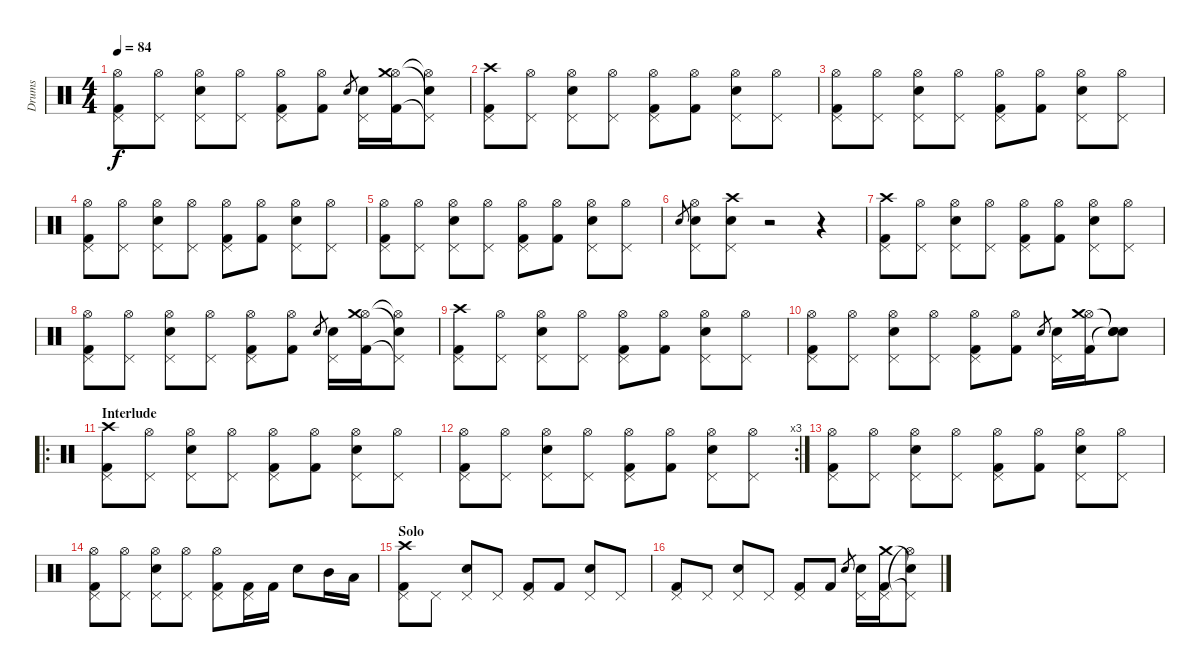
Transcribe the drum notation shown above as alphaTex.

\track ("Drums" "Drums") {instrument percussion}
\staff {score}
\articulation defaults
\ts (4 4)
\tempo 84
\clef neutral
\ks c
("Kick (hit) 2" "Pedal Hi-Hat (hit)" "Hi-Hat (open)").8{dy f} ("Pedal Hi-Hat (hit)" "Hi-Hat (open)").8 ("Snare (hit) 2" "Pedal Hi-Hat (hit)" "Hi-Hat (open)").8 ("Pedal Hi-Hat (hit)" "Hi-Hat (open)").8 ("Kick (hit) 2" "Pedal Hi-Hat (hit)" "Hi-Hat (open)").8 ("Kick (hit) 2" "Hi-Hat (open)").8 "Snare (hit) 2".8{gr} ("Snare (hit) 2" "Pedal Hi-Hat (hit)").16 ("Kick (hit) 2" "Hi-Hat (open)" "Crash medium (hit)").16 ("Pedal Hi-Hat (hit)"{t} "Hi-Hat (open)"{t} "Snare (hit)"{t}).8 |
("Kick (hit) 2" "Pedal Hi-Hat (hit)" "Crash high (hit)").8 ("Pedal Hi-Hat (hit)" "Hi-Hat (open)").8 ("Snare (hit) 2" "Pedal Hi-Hat (hit)" "Hi-Hat (open)").8 ("Pedal Hi-Hat (hit)" "Hi-Hat (open)").8 ("Kick (hit) 2" "Pedal Hi-Hat (hit)" "Hi-Hat (open)").8 ("Kick (hit) 2" "Hi-Hat (open)").8 ("Snare (hit) 2" "Pedal Hi-Hat (hit)" "Hi-Hat (open)").8 ("Pedal Hi-Hat (hit)" "Hi-Hat (open)").8 |
("Kick (hit) 2" "Pedal Hi-Hat (hit)" "Hi-Hat (open)").8 ("Pedal Hi-Hat (hit)" "Hi-Hat (open)").8 ("Snare (hit) 2" "Pedal Hi-Hat (hit)" "Hi-Hat (open)").8 ("Pedal Hi-Hat (hit)" "Hi-Hat (open)").8 ("Kick (hit) 2" "Pedal Hi-Hat (hit)" "Hi-Hat (open)").8 ("Kick (hit) 2" "Hi-Hat (open)").8 ("Snare (hit) 2" "Pedal Hi-Hat (hit)" "Hi-Hat (open)").8 ("Pedal Hi-Hat (hit)" "Hi-Hat (open)").8 |
("Kick (hit) 2" "Pedal Hi-Hat (hit)" "Hi-Hat (open)").8 ("Pedal Hi-Hat (hit)" "Hi-Hat (open)").8 ("Snare (hit) 2" "Pedal Hi-Hat (hit)" "Hi-Hat (open)").8 ("Pedal Hi-Hat (hit)" "Hi-Hat (open)").8 ("Kick (hit) 2" "Pedal Hi-Hat (hit)" "Hi-Hat (open)").8 ("Kick (hit) 2" "Hi-Hat (open)").8 ("Snare (hit) 2" "Pedal Hi-Hat (hit)" "Hi-Hat (open)").8 ("Pedal Hi-Hat (hit)" "Hi-Hat (open)").8 |
("Kick (hit) 2" "Pedal Hi-Hat (hit)" "Hi-Hat (open)").8 ("Pedal Hi-Hat (hit)" "Hi-Hat (open)").8 ("Snare (hit) 2" "Pedal Hi-Hat (hit)" "Hi-Hat (open)").8 ("Pedal Hi-Hat (hit)" "Hi-Hat (open)").8 ("Kick (hit) 2" "Pedal Hi-Hat (hit)" "Hi-Hat (open)").8 ("Kick (hit) 2" "Hi-Hat (open)").8 ("Snare (hit) 2" "Pedal Hi-Hat (hit)" "Hi-Hat (open)").8 ("Pedal Hi-Hat (hit)" "Hi-Hat (open)").8 |
"Snare (hit) 2".8{gr} ("Snare (hit) 2" "Pedal Hi-Hat (hit)" "Hi-Hat (open)").8 ("Snare (hit) 2" "Pedal Hi-Hat (hit)" "Crash high (hit)").8 r.2 r.4 |
("Kick (hit) 2" "Pedal Hi-Hat (hit)" "Crash high (hit)").8 ("Pedal Hi-Hat (hit)" "Hi-Hat (open)").8 ("Snare (hit) 2" "Pedal Hi-Hat (hit)" "Hi-Hat (open)").8 ("Pedal Hi-Hat (hit)" "Hi-Hat (open)").8 ("Kick (hit) 2" "Pedal Hi-Hat (hit)" "Hi-Hat (open)").8 ("Kick (hit) 2" "Hi-Hat (open)").8 ("Snare (hit) 2" "Pedal Hi-Hat (hit)" "Hi-Hat (open)").8 ("Pedal Hi-Hat (hit)" "Hi-Hat (open)").8 |
("Kick (hit) 2" "Pedal Hi-Hat (hit)" "Hi-Hat (open)").8 ("Pedal Hi-Hat (hit)" "Hi-Hat (open)").8 ("Snare (hit) 2" "Pedal Hi-Hat (hit)" "Hi-Hat (open)").8 ("Pedal Hi-Hat (hit)" "Hi-Hat (open)").8 ("Kick (hit) 2" "Pedal Hi-Hat (hit)" "Hi-Hat (open)").8 ("Kick (hit) 2" "Hi-Hat (open)").8 "Snare (hit) 2".8{gr} ("Snare (hit) 2" "Pedal Hi-Hat (hit)").16 ("Kick (hit) 2" "Hi-Hat (open)" "Crash medium (hit)").16 ("Pedal Hi-Hat (hit)"{t} "Hi-Hat (open)"{t} "Snare (hit)"{t}).8 |
("Kick (hit) 2" "Pedal Hi-Hat (hit)" "Crash high (hit)").8 ("Pedal Hi-Hat (hit)" "Hi-Hat (open)").8 ("Snare (hit) 2" "Pedal Hi-Hat (hit)" "Hi-Hat (open)").8 ("Pedal Hi-Hat (hit)" "Hi-Hat (open)").8 ("Kick (hit) 2" "Pedal Hi-Hat (hit)" "Hi-Hat (open)").8 ("Kick (hit) 2" "Hi-Hat (open)").8 ("Snare (hit) 2" "Pedal Hi-Hat (hit)" "Hi-Hat (open)").8 ("Pedal Hi-Hat (hit)" "Hi-Hat (open)").8 |
("Kick (hit) 2" "Pedal Hi-Hat (hit)" "Hi-Hat (open)").8 ("Pedal Hi-Hat (hit)" "Hi-Hat (open)").8 ("Snare (hit) 2" "Pedal Hi-Hat (hit)" "Hi-Hat (open)").8 ("Pedal Hi-Hat (hit)" "Hi-Hat (open)").8 ("Kick (hit) 2" "Pedal Hi-Hat (hit)" "Hi-Hat (open)").8 ("Kick (hit) 2" "Hi-Hat (open)").8 "Snare (hit) 2".8{gr} ("Snare (hit) 2" "Pedal Hi-Hat (hit)").16 ("Kick (hit) 2" "Hi-Hat (open)" "Crash medium (hit)").16 ("Snare (hit)"{t} "Snare (hit)"{t} "Snare (hit)"{t}).8 |
\ro
\section ("" "Interlude")
("Kick (hit) 2" "Pedal Hi-Hat (hit)" "Crash high (hit)").8 ("Pedal Hi-Hat (hit)" "Hi-Hat (open)").8 ("Snare (hit) 2" "Pedal Hi-Hat (hit)" "Hi-Hat (open)").8 ("Pedal Hi-Hat (hit)" "Hi-Hat (open)").8 ("Kick (hit) 2" "Pedal Hi-Hat (hit)" "Hi-Hat (open)").8 ("Kick (hit) 2" "Hi-Hat (open)").8 ("Snare (hit) 2" "Pedal Hi-Hat (hit)" "Hi-Hat (open)").8 ("Pedal Hi-Hat (hit)" "Hi-Hat (open)").8 |
\rc 3
("Kick (hit) 2" "Pedal Hi-Hat (hit)" "Hi-Hat (open)").8 ("Pedal Hi-Hat (hit)" "Hi-Hat (open)").8 ("Snare (hit) 2" "Pedal Hi-Hat (hit)" "Hi-Hat (open)").8 ("Pedal Hi-Hat (hit)" "Hi-Hat (open)").8 ("Kick (hit) 2" "Pedal Hi-Hat (hit)" "Hi-Hat (open)").8 ("Kick (hit) 2" "Hi-Hat (open)").8 ("Snare (hit) 2" "Pedal Hi-Hat (hit)" "Hi-Hat (open)").8 ("Pedal Hi-Hat (hit)" "Hi-Hat (open)").8 |
("Kick (hit) 2" "Pedal Hi-Hat (hit)" "Hi-Hat (open)").8 ("Pedal Hi-Hat (hit)" "Hi-Hat (open)").8 ("Snare (hit) 2" "Pedal Hi-Hat (hit)" "Hi-Hat (open)").8 ("Pedal Hi-Hat (hit)" "Hi-Hat (open)").8 ("Kick (hit) 2" "Pedal Hi-Hat (hit)" "Hi-Hat (open)").8 ("Kick (hit) 2" "Hi-Hat (open)").8 ("Snare (hit) 2" "Pedal Hi-Hat (hit)" "Hi-Hat (open)").8 ("Pedal Hi-Hat (hit)" "Hi-Hat (open)").8 |
("Kick (hit) 2" "Pedal Hi-Hat (hit)" "Hi-Hat (open)").8 ("Pedal Hi-Hat (hit)" "Hi-Hat (open)").8 ("Snare (hit) 2" "Pedal Hi-Hat (hit)" "Hi-Hat (open)").8 ("Pedal Hi-Hat (hit)" "Hi-Hat (open)").8 ("Kick (hit) 2" "Pedal Hi-Hat (hit)" "Hi-Hat (open)").8 ("Kick (hit) 2" "Pedal Hi-Hat (hit)").16 "Kick (hit) 2".16 "Snare (hit) 2".8 "Mid Tom (hit)".16 "Low Tom (hit)".16 |
\section ("" "Solo")
("Kick (hit) 2" "Pedal Hi-Hat (hit)" "Crash high (hit)").8 "Pedal Hi-Hat (hit)".8 ("Snare (hit) 2" "Pedal Hi-Hat (hit)").8 "Pedal Hi-Hat (hit)".8 ("Kick (hit) 2" "Pedal Hi-Hat (hit)").8 "Kick (hit) 2".8 ("Snare (hit) 2" "Pedal Hi-Hat (hit)").8 "Pedal Hi-Hat (hit)".8 |
("Kick (hit) 2" "Pedal Hi-Hat (hit)").8 "Pedal Hi-Hat (hit)".8 ("Snare (hit) 2" "Pedal Hi-Hat (hit)").8 "Pedal Hi-Hat (hit)".8 ("Kick (hit) 2" "Pedal Hi-Hat (hit)").8 "Kick (hit) 2".8 "Snare (hit) 2".8{gr} ("Snare (hit) 2" "Pedal Hi-Hat (hit)").16 ("Kick (hit) 2" "Pedal Hi-Hat (hit)" "Crash medium (hit)").16 ("Pedal Hi-Hat (hit)"{t} "Hi-Hat (open)"{t} "Snare (hit)"{t}).8
